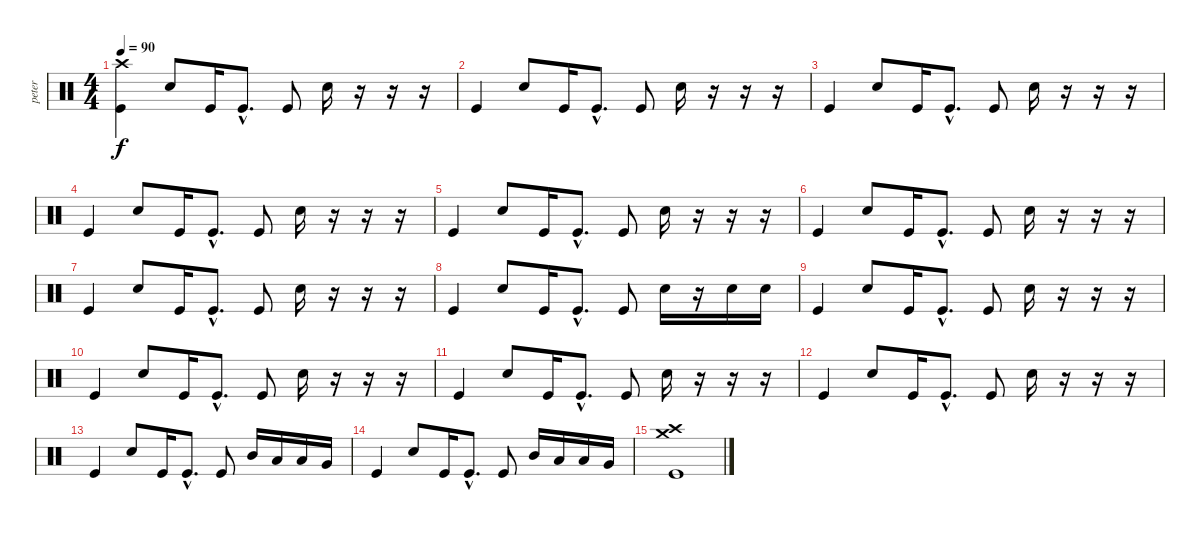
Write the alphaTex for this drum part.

\track ("peter" "peter") {instrument percussion}
\staff {score}
\articulation defaults
\ts (4 4)
\tempo 90
\clef neutral
\ks c
("Crash high (hit)" "Kick (hit)").4{dy f} "Electric Snare (hit)".8 "Kick (hit)".16 "Kick (hit)"{hac}.8{d} "Kick (hit)".8 "Electric Snare (hit)".16 r.16 r.16 r.16 |
"Kick (hit)".4 "Electric Snare (hit)".8 "Kick (hit)".16 "Kick (hit)"{hac}.8{d} "Kick (hit)".8 "Electric Snare (hit)".16 r.16 r.16 r.16 |
"Kick (hit)".4 "Electric Snare (hit)".8 "Kick (hit)".16 "Kick (hit)"{hac}.8{d} "Kick (hit)".8 "Electric Snare (hit)".16 r.16 r.16 r.16 |
"Kick (hit)".4 "Electric Snare (hit)".8 "Kick (hit)".16 "Kick (hit)"{hac}.8{d} "Kick (hit)".8 "Electric Snare (hit)".16 r.16 r.16 r.16 |
"Kick (hit)".4 "Electric Snare (hit)".8 "Kick (hit)".16 "Kick (hit)"{hac}.8{d} "Kick (hit)".8 "Electric Snare (hit)".16 r.16 r.16 r.16 |
"Kick (hit)".4 "Electric Snare (hit)".8 "Kick (hit)".16 "Kick (hit)"{hac}.8{d} "Kick (hit)".8 "Electric Snare (hit)".16 r.16 r.16 r.16 |
"Kick (hit)".4 "Electric Snare (hit)".8 "Kick (hit)".16 "Kick (hit)"{hac}.8{d} "Kick (hit)".8 "Electric Snare (hit)".16 r.16 r.16 r.16 |
"Kick (hit)".4 "Electric Snare (hit)".8 "Kick (hit)".16 "Kick (hit)"{hac}.8{d} "Kick (hit)".8 "Electric Snare (hit)".16 r.16 "Electric Snare (hit)".16 "Electric Snare (hit)".16 |
"Kick (hit)".4 "Electric Snare (hit)".8 "Kick (hit)".16 "Kick (hit)"{hac}.8{d} "Kick (hit)".8 "Electric Snare (hit)".16 r.16 r.16 r.16 |
"Kick (hit)".4 "Electric Snare (hit)".8 "Kick (hit)".16 "Kick (hit)"{hac}.8{d} "Kick (hit)".8 "Electric Snare (hit)".16 r.16 r.16 r.16 |
"Kick (hit)".4 "Electric Snare (hit)".8 "Kick (hit)".16 "Kick (hit)"{hac}.8{d} "Kick (hit)".8 "Electric Snare (hit)".16 r.16 r.16 r.16 |
"Kick (hit)".4 "Electric Snare (hit)".8 "Kick (hit)".16 "Kick (hit)"{hac}.8{d} "Kick (hit)".8 "Electric Snare (hit)".16 r.16 r.16 r.16 |
"Kick (hit)".4 "Electric Snare (hit)".8 "Kick (hit)".16 "Kick (hit)"{hac}.8{d} "Kick (hit)".8 "Mid Tom (hit)".16 "Low Tom (hit)".16 "Low Tom (hit)".16 "Very Low Tom (hit)".16 |
"Kick (hit)".4 "Electric Snare (hit)".8 "Kick (hit)".16 "Kick (hit)"{hac}.8{d} "Kick (hit)".8 "Mid Tom (hit)".16 "Low Tom (hit)".16 "Low Tom (hit)".16 "Very Low Tom (hit)".16 |
("Crash high (hit)" "Crash medium (hit)" "Kick (hit)").1
